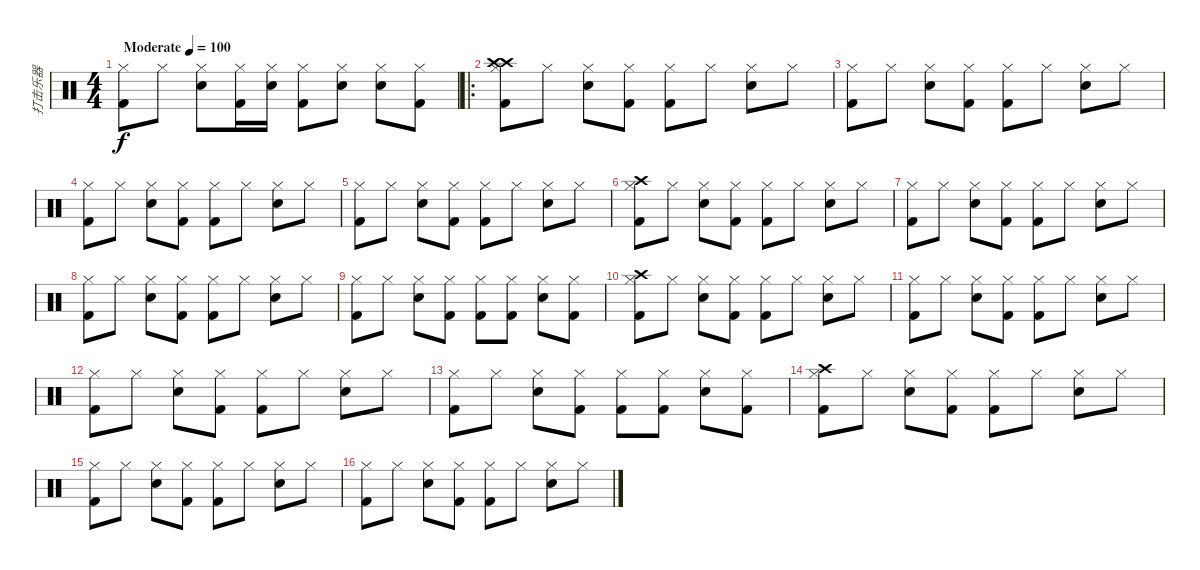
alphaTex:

\track ("打击乐器" "打击乐器") {instrument percussion}
\staff {score}
\articulation defaults
\ts (4 4)
\tempo (100 "Moderate")
\clef neutral
\ks c
("Hi-Hat (closed)" "Kick (hit) 2").8{dy f} "Hi-Hat (closed)".8 ("Hi-Hat (closed)" "Snare (hit) 2").8 ("Hi-Hat (closed)" "Kick (hit) 2").16 ("Hi-Hat (closed)" "Snare (hit) 2").16 ("Hi-Hat (closed)" "Kick (hit) 2").8 ("Hi-Hat (closed)" "Snare (hit) 2").8 ("Hi-Hat (closed)" "Snare (hit) 2").8 ("Hi-Hat (closed)" "Kick (hit) 2").8 |
\ro
("Hi-Hat (closed)" "Crash high (hit)" "Crash high (hit)" "Kick (hit) 2").8 "Hi-Hat (closed)".8 ("Hi-Hat (closed)" "Snare (hit) 2").8 ("Hi-Hat (closed)" "Kick (hit) 2").8 ("Hi-Hat (closed)" "Kick (hit) 2").8 "Hi-Hat (closed)".8 ("Hi-Hat (closed)" "Snare (hit) 2").8 "Hi-Hat (closed)".8 |
("Hi-Hat (closed)" "Kick (hit) 2").8 "Hi-Hat (closed)".8 ("Hi-Hat (closed)" "Snare (hit) 2").8 ("Hi-Hat (closed)" "Kick (hit) 2").8 ("Hi-Hat (closed)" "Kick (hit) 2").8 "Hi-Hat (closed)".8 ("Hi-Hat (closed)" "Snare (hit) 2").8 "Hi-Hat (closed)".8 |
("Hi-Hat (closed)" "Kick (hit) 2").8 "Hi-Hat (closed)".8 ("Hi-Hat (closed)" "Snare (hit) 2").8 ("Hi-Hat (closed)" "Kick (hit) 2").8 ("Hi-Hat (closed)" "Kick (hit) 2").8 "Hi-Hat (closed)".8 ("Hi-Hat (closed)" "Snare (hit) 2").8 "Hi-Hat (closed)".8 |
("Hi-Hat (closed)" "Kick (hit) 2").8 "Hi-Hat (closed)".8 ("Hi-Hat (closed)" "Snare (hit) 2").8 ("Hi-Hat (closed)" "Kick (hit) 2").8 ("Hi-Hat (closed)" "Kick (hit) 2").8 "Hi-Hat (closed)".8 ("Hi-Hat (closed)" "Snare (hit) 2").8 "Hi-Hat (closed)".8 |
("Hi-Hat (closed)" "Crash high (hit)" "Kick (hit) 2").8 "Hi-Hat (closed)".8 ("Hi-Hat (closed)" "Snare (hit) 2").8 ("Hi-Hat (closed)" "Kick (hit) 2").8 ("Hi-Hat (closed)" "Kick (hit) 2").8 "Hi-Hat (closed)".8 ("Hi-Hat (closed)" "Snare (hit) 2").8 "Hi-Hat (closed)".8 |
("Hi-Hat (closed)" "Kick (hit) 2").8 "Hi-Hat (closed)".8 ("Hi-Hat (closed)" "Snare (hit) 2").8 ("Hi-Hat (closed)" "Kick (hit) 2").8 ("Hi-Hat (closed)" "Kick (hit) 2").8 "Hi-Hat (closed)".8 ("Hi-Hat (closed)" "Snare (hit) 2").8 "Hi-Hat (closed)".8 |
("Hi-Hat (closed)" "Kick (hit) 2").8 "Hi-Hat (closed)".8 ("Hi-Hat (closed)" "Snare (hit) 2").8 ("Hi-Hat (closed)" "Kick (hit) 2").8 ("Hi-Hat (closed)" "Kick (hit) 2").8 "Hi-Hat (closed)".8 ("Hi-Hat (closed)" "Snare (hit) 2").8 "Hi-Hat (closed)".8 |
("Hi-Hat (closed)" "Kick (hit) 2").8 "Hi-Hat (closed)".8 ("Hi-Hat (closed)" "Snare (hit) 2").8 ("Hi-Hat (closed)" "Kick (hit) 2").8 ("Hi-Hat (closed)" "Kick (hit) 2").8 ("Hi-Hat (closed)" "Kick (hit) 2").8 ("Hi-Hat (closed)" "Snare (hit) 2").8 ("Hi-Hat (closed)" "Kick (hit) 2").8 |
("Hi-Hat (closed)" "Crash high (hit)" "Kick (hit) 2").8 "Hi-Hat (closed)".8 ("Hi-Hat (closed)" "Snare (hit) 2").8 ("Hi-Hat (closed)" "Kick (hit) 2").8 ("Hi-Hat (closed)" "Kick (hit) 2").8 "Hi-Hat (closed)".8 ("Hi-Hat (closed)" "Snare (hit) 2").8 "Hi-Hat (closed)".8 |
("Hi-Hat (closed)" "Kick (hit) 2").8 "Hi-Hat (closed)".8 ("Hi-Hat (closed)" "Snare (hit) 2").8 ("Hi-Hat (closed)" "Kick (hit) 2").8 ("Hi-Hat (closed)" "Kick (hit) 2").8 "Hi-Hat (closed)".8 ("Hi-Hat (closed)" "Snare (hit) 2").8 "Hi-Hat (closed)".8 |
("Hi-Hat (closed)" "Kick (hit) 2").8 "Hi-Hat (closed)".8 ("Hi-Hat (closed)" "Snare (hit) 2").8 ("Hi-Hat (closed)" "Kick (hit) 2").8 ("Hi-Hat (closed)" "Kick (hit) 2").8 "Hi-Hat (closed)".8 ("Hi-Hat (closed)" "Snare (hit) 2").8 "Hi-Hat (closed)".8 |
("Hi-Hat (closed)" "Kick (hit) 2").8 "Hi-Hat (closed)".8 ("Hi-Hat (closed)" "Snare (hit) 2").8 ("Hi-Hat (closed)" "Kick (hit) 2").8 ("Hi-Hat (closed)" "Kick (hit) 2").8 ("Hi-Hat (closed)" "Kick (hit) 2").8 ("Hi-Hat (closed)" "Snare (hit) 2").8 ("Hi-Hat (closed)" "Kick (hit) 2").8 |
("Hi-Hat (closed)" "Crash high (hit)" "Kick (hit) 2").8 "Hi-Hat (closed)".8 ("Hi-Hat (closed)" "Snare (hit) 2").8 ("Hi-Hat (closed)" "Kick (hit) 2").8 ("Hi-Hat (closed)" "Kick (hit) 2").8 "Hi-Hat (closed)".8 ("Hi-Hat (closed)" "Snare (hit) 2").8 "Hi-Hat (closed)".8 |
("Hi-Hat (closed)" "Kick (hit) 2").8 "Hi-Hat (closed)".8 ("Hi-Hat (closed)" "Snare (hit) 2").8 ("Hi-Hat (closed)" "Kick (hit) 2").8 ("Hi-Hat (closed)" "Kick (hit) 2").8 "Hi-Hat (closed)".8 ("Hi-Hat (closed)" "Snare (hit) 2").8 "Hi-Hat (closed)".8 |
("Hi-Hat (closed)" "Kick (hit) 2").8 "Hi-Hat (closed)".8 ("Hi-Hat (closed)" "Snare (hit) 2").8 ("Hi-Hat (closed)" "Kick (hit) 2").8 ("Hi-Hat (closed)" "Kick (hit) 2").8 "Hi-Hat (closed)".8 ("Hi-Hat (closed)" "Snare (hit) 2").8 "Hi-Hat (closed)".8
